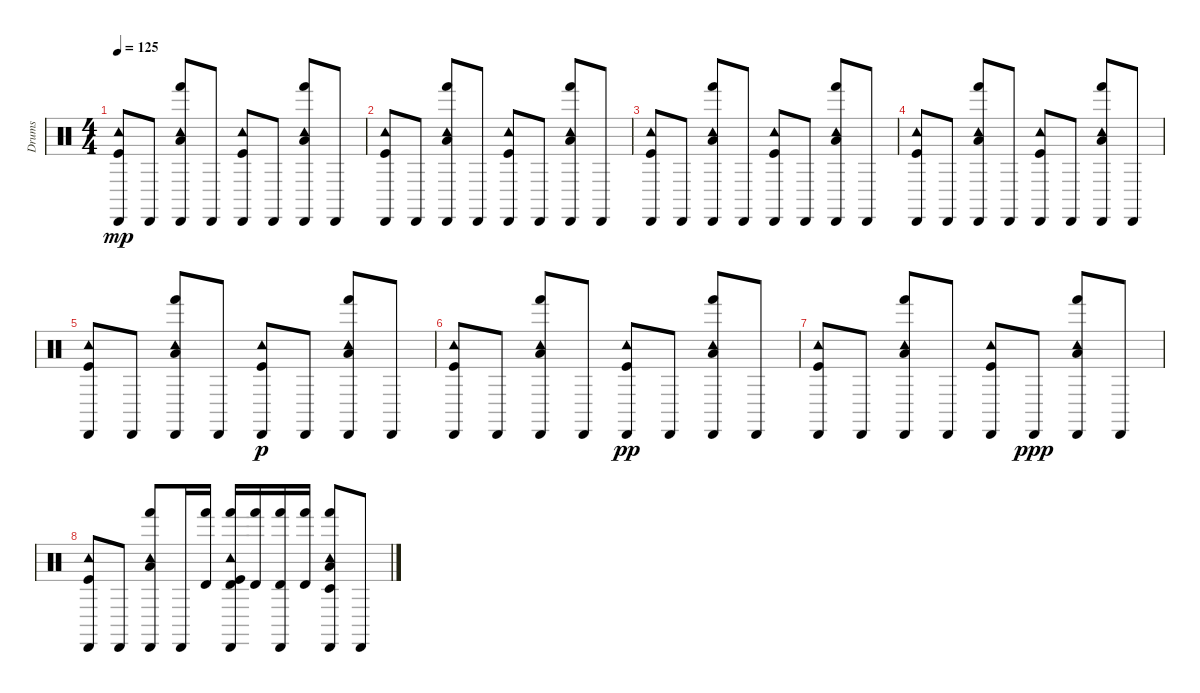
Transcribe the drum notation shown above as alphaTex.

\track ("Drums" "Drums") {instrument percussion}
\staff {score}
\articulation defaults
\ts (4 4)
\tempo 125
\clef neutral
\ks c
("Kick (hit)" "Tambourine (hit)" "Cabasa (hit)").8{dy mp} "Cabasa (hit)".8 ("Low Tom (hit)" "Hand (hit)" "Tambourine (hit)" "Cabasa (hit)").8 "Cabasa (hit)".8 ("Kick (hit)" "Tambourine (hit)" "Cabasa (hit)").8 "Cabasa (hit)".8 ("Low Tom (hit)" "Hand (hit)" "Tambourine (hit)" "Cabasa (hit)").8 "Cabasa (hit)".8 |
("Kick (hit)" "Tambourine (hit)" "Cabasa (hit)").8 "Cabasa (hit)".8 ("Low Tom (hit)" "Hand (hit)" "Tambourine (hit)" "Cabasa (hit)").8 "Cabasa (hit)".8 ("Kick (hit)" "Tambourine (hit)" "Cabasa (hit)").8 "Cabasa (hit)".8 ("Low Tom (hit)" "Hand (hit)" "Tambourine (hit)" "Cabasa (hit)").8 "Cabasa (hit)".8 |
("Kick (hit)" "Tambourine (hit)" "Cabasa (hit)").8 "Cabasa (hit)".8 ("Low Tom (hit)" "Hand (hit)" "Tambourine (hit)" "Cabasa (hit)").8 "Cabasa (hit)".8 ("Kick (hit)" "Tambourine (hit)" "Cabasa (hit)").8 "Cabasa (hit)".8 ("Low Tom (hit)" "Hand (hit)" "Tambourine (hit)" "Cabasa (hit)").8 "Cabasa (hit)".8 |
("Kick (hit)" "Tambourine (hit)" "Cabasa (hit)").8 "Cabasa (hit)".8 ("Low Tom (hit)" "Hand (hit)" "Tambourine (hit)" "Cabasa (hit)").8 "Cabasa (hit)".8 ("Kick (hit)" "Tambourine (hit)" "Cabasa (hit)").8 "Cabasa (hit)".8 ("Low Tom (hit)" "Hand (hit)" "Tambourine (hit)" "Cabasa (hit)").8 "Cabasa (hit)".8 |
("Tambourine (hit)" "Kick (hit)" "Cabasa (hit)").8 "Cabasa (hit)".8 ("Low Tom (hit)" "Tambourine (hit)" "Hand (hit)" "Cabasa (hit)").8 "Cabasa (hit)".8 ("Tambourine (hit)" "Kick (hit)" "Cabasa (hit)").8{dy p} "Cabasa (hit)".8 ("Low Tom (hit)" "Tambourine (hit)" "Hand (hit)" "Cabasa (hit)").8 "Cabasa (hit)".8 |
("Tambourine (hit)" "Kick (hit)" "Cabasa (hit)").8 "Cabasa (hit)".8 ("Low Tom (hit)" "Tambourine (hit)" "Hand (hit)" "Cabasa (hit)").8 "Cabasa (hit)".8 ("Tambourine (hit)" "Kick (hit)" "Cabasa (hit)").8{dy pp} "Cabasa (hit)".8 ("Low Tom (hit)" "Tambourine (hit)" "Hand (hit)" "Cabasa (hit)").8 "Cabasa (hit)".8 |
("Tambourine (hit)" "Kick (hit)" "Cabasa (hit)").8 "Cabasa (hit)".8 ("Low Tom (hit)" "Tambourine (hit)" "Hand (hit)" "Cabasa (hit)").8 "Cabasa (hit)".8 ("Tambourine (hit)" "Kick (hit)" "Cabasa (hit)").8 "Cabasa (hit)".8{dy ppp} ("Low Tom (hit)" "Tambourine (hit)" "Hand (hit)" "Cabasa (hit)").8 "Cabasa (hit)".8 |
("Tambourine (hit)" "Kick (hit)" "Cabasa (hit)").8 "Cabasa (hit)".8 ("Low Tom (hit)" "Tambourine (hit)" "Hand (hit)" "Cabasa (hit)").8 "Cabasa (hit)".16 ("Timbale high (hit)" "Hand (hit)").16 ("Tambourine (hit)" "Timbale high (hit)" "Hand (hit)" "Kick (hit)" "Cabasa (hit)").16 ("Timbale high (hit)" "Hand (hit)").16 ("Timbale high (hit)" "Hand (hit)" "Cabasa (hit)").16 ("Timbale high (hit)" "Hand (hit)").16 ("Low Tom (hit)" "Tambourine (hit)" "Timbale low (hit)" "Hand (hit)" "Cabasa (hit)").8 "Cabasa (hit)".8
